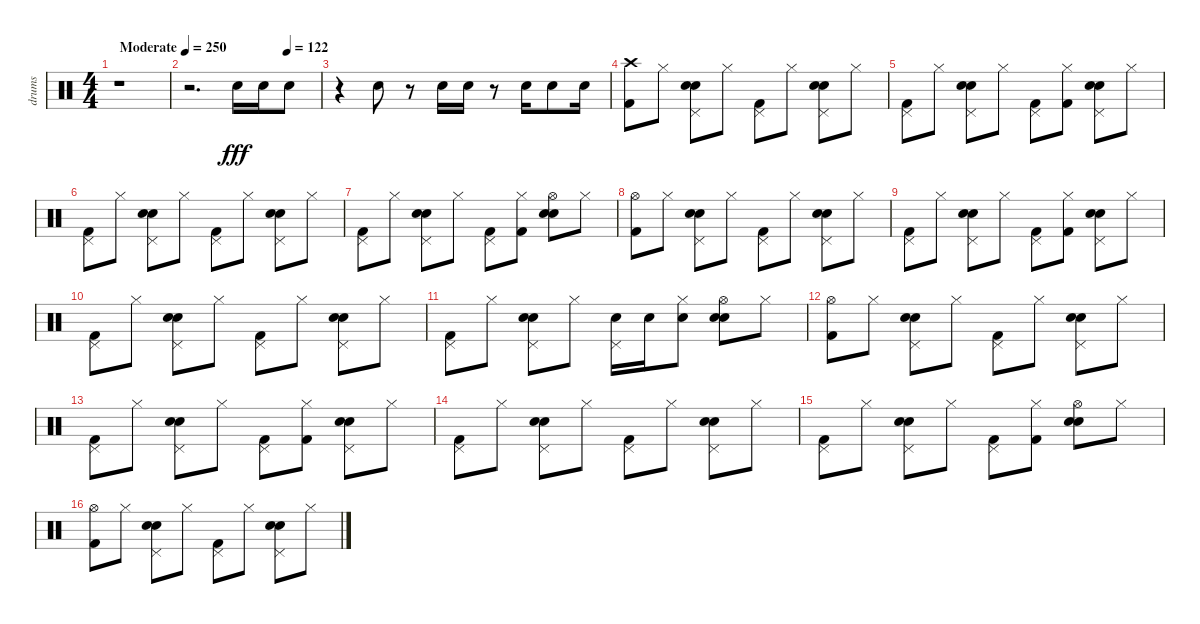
\track ("drums" "drums") {instrument percussion}
\staff {score}
\articulation defaults
\ts (4 4)
\tempo (250 "Moderate")
\clef neutral
\ks c
r.1{dy fff} |
\tempo (122 0.75)
r.2{d} "Snare (hit) 2".16 "Snare (hit) 2".16 "Snare (hit) 2".8 |
r.4 "Snare (hit) 2".8 r.8 "Snare (hit) 2".16 "Snare (hit) 2".16 r.8 "Snare (hit) 2".16 "Snare (hit) 2".8 "Snare (hit) 2".16 |
("Crash high (hit)" "Kick (hit) 2").8 "Hi-Hat (closed)".8 ("Hand Clap (hit)" "Pedal Hi-Hat (hit)" "Snare (hit) 2").8 "Hi-Hat (closed)".8 ("Pedal Hi-Hat (hit)" "Kick (hit) 2").8 "Hi-Hat (closed)".8 ("Hand Clap (hit)" "Pedal Hi-Hat (hit)" "Snare (hit) 2").8 "Hi-Hat (closed)".8 |
("Pedal Hi-Hat (hit)" "Kick (hit) 2").8 "Hi-Hat (closed)".8 ("Hand Clap (hit)" "Pedal Hi-Hat (hit)" "Snare (hit) 2").8 "Hi-Hat (closed)".8 ("Pedal Hi-Hat (hit)" "Kick (hit) 2").8 ("Hi-Hat (closed)" "Kick (hit) 2").8 ("Hand Clap (hit)" "Pedal Hi-Hat (hit)" "Snare (hit) 2").8 "Hi-Hat (closed)".8 |
("Pedal Hi-Hat (hit)" "Kick (hit) 2").8 "Hi-Hat (closed)".8 ("Hand Clap (hit)" "Pedal Hi-Hat (hit)" "Snare (hit) 2").8 "Hi-Hat (closed)".8 ("Pedal Hi-Hat (hit)" "Kick (hit) 2").8 "Hi-Hat (closed)".8 ("Hand Clap (hit)" "Pedal Hi-Hat (hit)" "Snare (hit) 2").8 "Hi-Hat (closed)".8 |
("Pedal Hi-Hat (hit)" "Kick (hit) 2").8 "Hi-Hat (closed)".8 ("Hand Clap (hit)" "Pedal Hi-Hat (hit)" "Snare (hit) 2").8 "Hi-Hat (closed)".8 ("Kick (hit) 2" "Pedal Hi-Hat (hit)").8 ("Kick (hit) 2" "Hi-Hat (closed)").8 ("Hand Clap (hit)" "Hi-Hat (open)" "Snare (hit) 2").8 "Hi-Hat (closed)".8 |
("Hi-Hat (open)" "Kick (hit) 2").8 "Hi-Hat (closed)".8 ("Hand Clap (hit)" "Pedal Hi-Hat (hit)" "Snare (hit) 2").8 "Hi-Hat (closed)".8 ("Pedal Hi-Hat (hit)" "Kick (hit) 2").8 "Hi-Hat (closed)".8 ("Hand Clap (hit)" "Pedal Hi-Hat (hit)" "Snare (hit) 2").8 "Hi-Hat (closed)".8 |
("Pedal Hi-Hat (hit)" "Kick (hit) 2").8 "Hi-Hat (closed)".8 ("Hand Clap (hit)" "Pedal Hi-Hat (hit)" "Snare (hit) 2").8 "Hi-Hat (closed)".8 ("Pedal Hi-Hat (hit)" "Kick (hit) 2").8 ("Hi-Hat (closed)" "Kick (hit) 2").8 ("Hand Clap (hit)" "Pedal Hi-Hat (hit)" "Snare (hit) 2").8 "Hi-Hat (closed)".8 |
("Pedal Hi-Hat (hit)" "Kick (hit) 2").8 "Hi-Hat (closed)".8 ("Hand Clap (hit)" "Pedal Hi-Hat (hit)" "Snare (hit) 2").8 "Hi-Hat (closed)".8 ("Pedal Hi-Hat (hit)" "Kick (hit) 2").8 "Hi-Hat (closed)".8 ("Hand Clap (hit)" "Pedal Hi-Hat (hit)" "Snare (hit) 2").8 "Hi-Hat (closed)".8 |
("Pedal Hi-Hat (hit)" "Kick (hit) 2").8 "Hi-Hat (closed)".8 ("Hand Clap (hit)" "Pedal Hi-Hat (hit)" "Snare (hit) 2").8 "Hi-Hat (closed)".8 ("Snare (hit) 2" "Pedal Hi-Hat (hit)").16 "Snare (hit) 2".16 ("Snare (hit) 2" "Hi-Hat (closed)").8 ("Hand Clap (hit)" "Hi-Hat (open)" "Snare (hit) 2").8 "Hi-Hat (closed)".8 |
("Hi-Hat (open)" "Kick (hit) 2").8 "Hi-Hat (closed)".8 ("Hand Clap (hit)" "Pedal Hi-Hat (hit)" "Snare (hit) 2").8 "Hi-Hat (closed)".8 ("Pedal Hi-Hat (hit)" "Kick (hit) 2").8 "Hi-Hat (closed)".8 ("Hand Clap (hit)" "Pedal Hi-Hat (hit)" "Snare (hit) 2").8 "Hi-Hat (closed)".8 |
("Pedal Hi-Hat (hit)" "Kick (hit) 2").8 "Hi-Hat (closed)".8 ("Hand Clap (hit)" "Pedal Hi-Hat (hit)" "Snare (hit) 2").8 "Hi-Hat (closed)".8 ("Pedal Hi-Hat (hit)" "Kick (hit) 2").8 ("Hi-Hat (closed)" "Kick (hit) 2").8 ("Hand Clap (hit)" "Pedal Hi-Hat (hit)" "Snare (hit) 2").8 "Hi-Hat (closed)".8 |
("Pedal Hi-Hat (hit)" "Kick (hit) 2").8 "Hi-Hat (closed)".8 ("Hand Clap (hit)" "Pedal Hi-Hat (hit)" "Snare (hit) 2").8 "Hi-Hat (closed)".8 ("Pedal Hi-Hat (hit)" "Kick (hit) 2").8 "Hi-Hat (closed)".8 ("Hand Clap (hit)" "Pedal Hi-Hat (hit)" "Snare (hit) 2").8 "Hi-Hat (closed)".8 |
("Pedal Hi-Hat (hit)" "Kick (hit) 2").8 "Hi-Hat (closed)".8 ("Hand Clap (hit)" "Pedal Hi-Hat (hit)" "Snare (hit) 2").8 "Hi-Hat (closed)".8 ("Kick (hit) 2" "Pedal Hi-Hat (hit)").8 ("Kick (hit) 2" "Hi-Hat (closed)").8 ("Hand Clap (hit)" "Hi-Hat (open)" "Snare (hit) 2").8 "Hi-Hat (closed)".8 |
("Hi-Hat (open)" "Kick (hit) 2").8 "Hi-Hat (closed)".8 ("Hand Clap (hit)" "Pedal Hi-Hat (hit)" "Snare (hit) 2").8 "Hi-Hat (closed)".8 ("Pedal Hi-Hat (hit)" "Kick (hit) 2").8 "Hi-Hat (closed)".8 ("Hand Clap (hit)" "Pedal Hi-Hat (hit)" "Snare (hit) 2").8 "Hi-Hat (closed)".8
